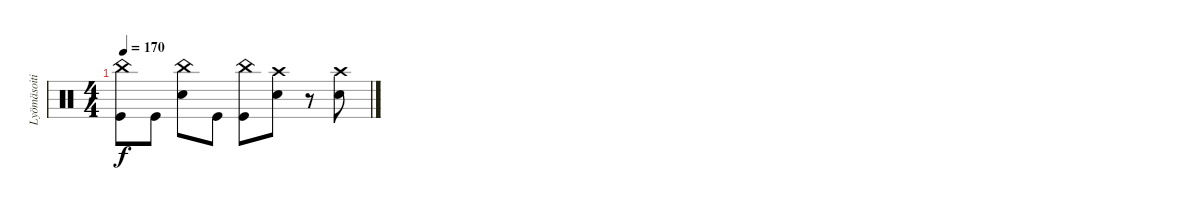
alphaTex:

\track ("Lyömäsoitin" "Lyömäsoiti") {instrument percussion}
\staff {score}
\articulation defaults
\ts (4 4)
\tempo 170
\clef neutral
\ks c
("China (hit)" "Kick (hit)").8{dy f} "Kick (hit)".8 ("China (hit)" "Snare (hit) 2").8 "Kick (hit)".8 ("China (hit)" "Kick (hit)").8 ("Crash high (hit)" "Snare (hit) 2").8 r.8 ("Crash high (hit)" "Snare (hit) 2").8
